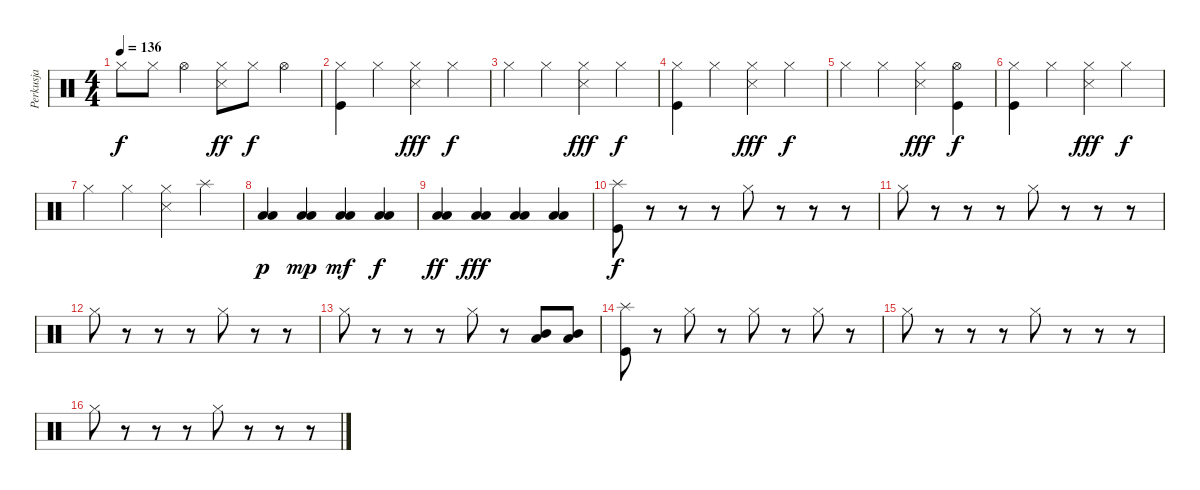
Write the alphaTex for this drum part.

\track ("Perkusja" "Perkusja") {instrument percussion}
\staff {score}
\articulation defaults
\ts (4 4)
\tempo 136
\clef neutral
\ks c "Hi-Hat (closed)".8{dy f} "Hi-Hat (closed)".8 "Hi-Hat (open)".4
("Hi-Hat (closed)" "Snare (side stick) 3").8{dy ff} "Hi-Hat (closed)".8{dy f} "Hi-Hat (open)".4 |
("Hi-Hat (closed)" "Kick (hit)").4 "Hi-Hat (closed)".4 ("Hi-Hat (closed)" "Snare (side stick) 3").4{dy fff} "Hi-Hat (closed)".4{dy f} |
"Hi-Hat (closed)".4 "Hi-Hat (closed)".4 ("Hi-Hat (closed)" "Snare (side stick) 3").4{dy fff} "Hi-Hat (closed)".4{dy f} |
("Hi-Hat (closed)" "Kick (hit)").4 "Hi-Hat (closed)".4 ("Hi-Hat (closed)" "Snare (side stick) 3").4{dy fff} "Hi-Hat (closed)".4{dy f} |
"Hi-Hat (closed)".4 "Hi-Hat (closed)".4 ("Hi-Hat (closed)" "Snare (side stick) 3").4{dy fff} ("Hi-Hat (open)" "Kick (hit)").4{dy f} |
("Hi-Hat (closed)" "Kick (hit)").4 "Hi-Hat (closed)".4 ("Hi-Hat (closed)" "Snare (side stick) 3").4{dy fff} "Hi-Hat (closed)".4{dy f} |
"Hi-Hat (closed)".4 "Hi-Hat (closed)".4 ("Hi-Hat (closed)" "Snare (side stick) 3").4 "Splash (hit)".4 |
("Low Tom (hit)" "Low Floor Tom (hit)").4{dy p} ("Low Tom (hit)" "Low Floor Tom (hit)").4{dy mp} ("Low Tom (hit)" "Low Floor Tom (hit)").4{dy mf} ("Low Tom (hit)" "Low Floor Tom (hit)").4{dy f} |
("Low Tom (hit)" "Low Floor Tom (hit)").4{dy ff} ("Low Tom (hit)" "Low Floor Tom (hit)").4{dy fff} ("Low Tom (hit)" "Low Floor Tom (hit)").4 ("Low Tom (hit)" "Low Floor Tom (hit)").4 |
("Splash (hit)" "Kick (hit)").8{dy f} r.8 r.8 r.8 "Hi-Hat (closed)".8 r.8 r.8 r.8 |
"Hi-Hat (closed)".8 r.8 r.8 r.8 "Hi-Hat (closed)".8 r.8 r.8 r.8 |
"Hi-Hat (closed)".8 r.8 r.8 r.8 "Hi-Hat (closed)".8 r.8 r.8 |
"Hi-Hat (closed)".8 r.8 r.8 r.8 "Hi-Hat (closed)".8 r.8 ("Mid Tom (hit)" "Low Tom (hit)").8 ("Mid Tom (hit)" "Low Tom (hit)").8 |
("Splash (hit)" "Kick (hit)").8 r.8 "Hi-Hat (closed)".8 r.8 "Hi-Hat (closed)".8 r.8 "Hi-Hat (closed)".8 r.8 |
"Hi-Hat (closed)".8 r.8 r.8 r.8 "Hi-Hat (closed)".8 r.8 r.8 r.8 |
"Hi-Hat (closed)".8 r.8 r.8 r.8 "Hi-Hat (closed)".8 r.8 r.8 r.8
